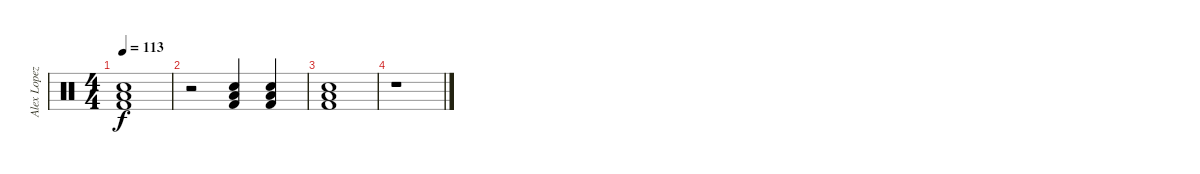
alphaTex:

\track ("Alex Lopez" "Alex Lopez") {instrument percussion}
\staff {score}
\articulation defaults
\ts (4 4)
\tempo 113
\clef neutral
\ks c
("Low Tom (hit)" "Snare (hit) 2" "Kick (hit) 2").1{dy f} |
r.2 ("Low Tom (hit)" "Snare (hit) 2" "Kick (hit) 2").4 ("Low Tom (hit)" "Snare (hit) 2" "Kick (hit) 2").4 |
("Low Tom (hit)" "Snare (hit) 2" "Kick (hit) 2").1 |
r.1
